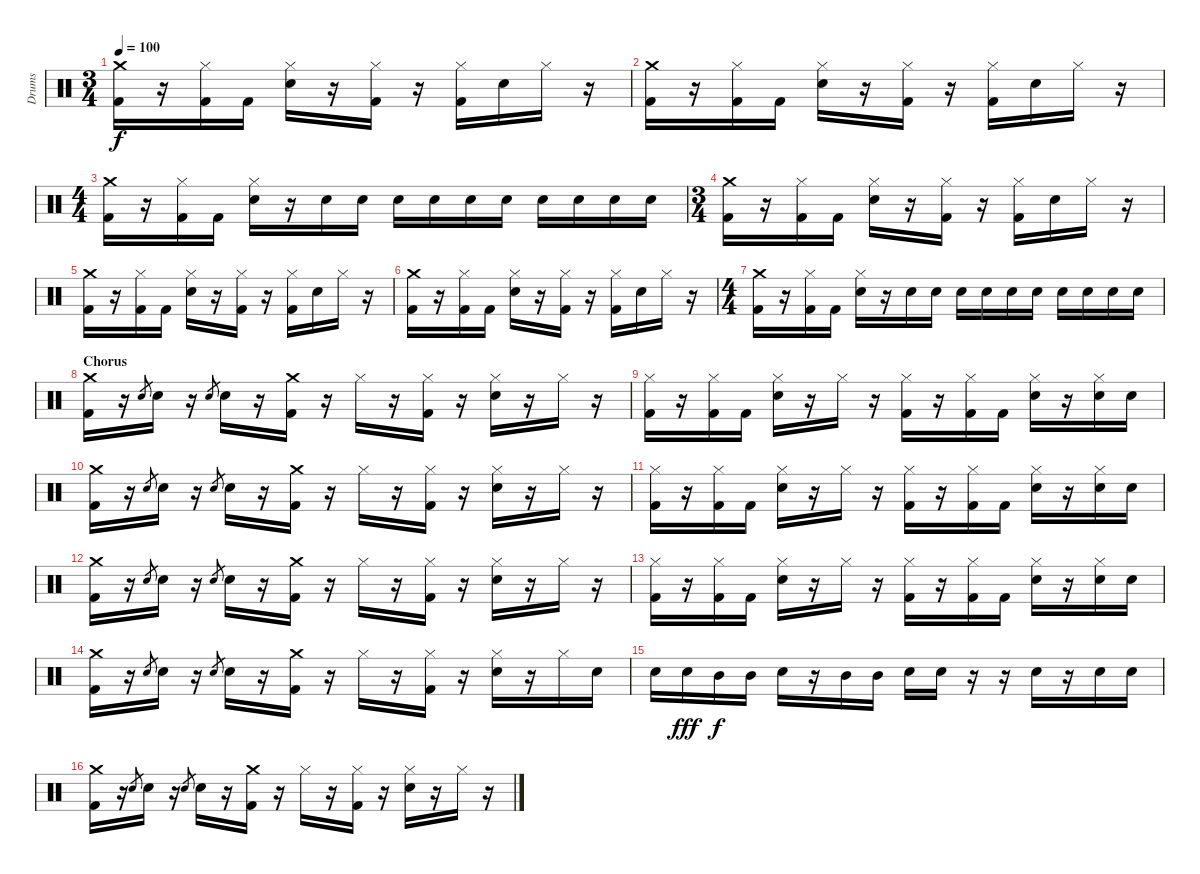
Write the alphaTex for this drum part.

\track ("Drums" "Drums") {instrument percussion}
\staff {score}
\articulation defaults
\ts (3 4)
\tempo 100
\clef neutral
\ks c
("Crash medium (hit)" "Kick (hit) 2").16{dy f} r.16 ("Hi-Hat (closed)" "Kick (hit) 2").16 "Kick (hit) 2".16 ("Hi-Hat (closed)" "Snare (hit) 2").16 r.16 ("Hi-Hat (closed)" "Kick (hit) 2").16 r.16 ("Hi-Hat (closed)" "Kick (hit) 2").16 "Snare (hit) 2".16 "Hi-Hat (closed)".16 r.16 |
("Crash medium (hit)" "Kick (hit) 2").16 r.16 ("Hi-Hat (closed)" "Kick (hit) 2").16 "Kick (hit) 2".16 ("Hi-Hat (closed)" "Snare (hit) 2").16 r.16 ("Hi-Hat (closed)" "Kick (hit) 2").16 r.16 ("Hi-Hat (closed)" "Kick (hit) 2").16 "Snare (hit) 2".16 "Hi-Hat (closed)".16 r.16 |
\ts (4 4)
("Crash medium (hit)" "Kick (hit) 2").16 r.16 ("Hi-Hat (closed)" "Kick (hit) 2").16 "Kick (hit) 2".16 ("Hi-Hat (closed)" "Snare (hit) 2").16 r.16 "Snare (hit) 2".16 "Snare (hit) 2".16 "Snare (hit) 2".16 "Snare (hit) 2".16 "Snare (hit) 2".16 "Snare (hit) 2".16 "Snare (hit) 2".16 "Snare (hit) 2".16 "Snare (hit) 2".16 "Snare (hit) 2".16 |
\ts (3 4)
("Crash medium (hit)" "Kick (hit) 2").16 r.16 ("Hi-Hat (closed)" "Kick (hit) 2").16 "Kick (hit) 2".16 ("Hi-Hat (closed)" "Snare (hit) 2").16 r.16 ("Hi-Hat (closed)" "Kick (hit) 2").16 r.16 ("Hi-Hat (closed)" "Kick (hit) 2").16 "Snare (hit) 2".16 "Hi-Hat (closed)".16 r.16 |
("Crash medium (hit)" "Kick (hit) 2").16 r.16 ("Hi-Hat (closed)" "Kick (hit) 2").16 "Kick (hit) 2".16 ("Hi-Hat (closed)" "Snare (hit) 2").16 r.16 ("Hi-Hat (closed)" "Kick (hit) 2").16 r.16 ("Hi-Hat (closed)" "Kick (hit) 2").16 "Snare (hit) 2".16 "Hi-Hat (closed)".16 r.16 |
("Crash medium (hit)" "Kick (hit) 2").16 r.16 ("Hi-Hat (closed)" "Kick (hit) 2").16 "Kick (hit) 2".16 ("Hi-Hat (closed)" "Snare (hit) 2").16 r.16 ("Hi-Hat (closed)" "Kick (hit) 2").16 r.16 ("Hi-Hat (closed)" "Kick (hit) 2").16 "Snare (hit) 2".16 "Hi-Hat (closed)".16 r.16 |
\ts (4 4)
("Crash medium (hit)" "Kick (hit) 2").16 r.16 ("Hi-Hat (closed)" "Kick (hit) 2").16 "Kick (hit) 2".16 ("Hi-Hat (closed)" "Snare (hit) 2").16 r.16 "Snare (hit) 2".16 "Snare (hit) 2".16 "Snare (hit) 2".16 "Snare (hit) 2".16 "Snare (hit) 2".16 "Snare (hit) 2".16 "Snare (hit) 2".16 "Snare (hit) 2".16 "Snare (hit) 2".16 "Snare (hit) 2".16 |
\section ("" "Chorus")
("Crash medium (hit)" "Kick (hit) 2").16 r.16 "Snare (hit) 2".8{gr} "Snare (hit) 2".16 r.16 "Snare (hit) 2".8{gr} "Snare (hit) 2".16 r.16 ("Crash medium (hit)" "Kick (hit) 2").16 r.16 "Hi-Hat (closed)".16 r.16 ("Hi-Hat (closed)" "Kick (hit) 2").16 r.16 ("Hi-Hat (closed)" "Snare (hit) 2").16 r.16 "Hi-Hat (closed)".16 r.16 |
("Hi-Hat (closed)" "Kick (hit) 2").16 r.16 ("Hi-Hat (closed)" "Kick (hit) 2").16 "Kick (hit) 2".16 ("Hi-Hat (closed)" "Snare (hit) 2").16 r.16 "Hi-Hat (closed)".16 r.16 ("Hi-Hat (closed)" "Kick (hit) 2").16 r.16 ("Hi-Hat (closed)" "Kick (hit) 2").16 "Kick (hit) 2".16 ("Hi-Hat (closed)" "Snare (hit) 2").16 r.16 ("Hi-Hat (closed)" "Snare (hit) 2").16 "Snare (hit) 2".16 |
("Crash medium (hit)" "Kick (hit) 2").16 r.16 "Snare (hit) 2".8{gr} "Snare (hit) 2".16 r.16 "Snare (hit) 2".8{gr} "Snare (hit) 2".16 r.16 ("Crash medium (hit)" "Kick (hit) 2").16 r.16 "Hi-Hat (closed)".16 r.16 ("Hi-Hat (closed)" "Kick (hit) 2").16 r.16 ("Hi-Hat (closed)" "Snare (hit) 2").16 r.16 "Hi-Hat (closed)".16 r.16 |
("Hi-Hat (closed)" "Kick (hit) 2").16 r.16 ("Hi-Hat (closed)" "Kick (hit) 2").16 "Kick (hit) 2".16 ("Hi-Hat (closed)" "Snare (hit) 2").16 r.16 "Hi-Hat (closed)".16 r.16 ("Hi-Hat (closed)" "Kick (hit) 2").16 r.16 ("Hi-Hat (closed)" "Kick (hit) 2").16 "Kick (hit) 2".16 ("Hi-Hat (closed)" "Snare (hit) 2").16 r.16 ("Hi-Hat (closed)" "Snare (hit) 2").16 "Snare (hit) 2".16 |
("Crash medium (hit)" "Kick (hit) 2").16 r.16 "Snare (hit) 2".8{gr} "Snare (hit) 2".16 r.16 "Snare (hit) 2".8{gr} "Snare (hit) 2".16 r.16 ("Crash medium (hit)" "Kick (hit) 2").16 r.16 "Hi-Hat (closed)".16 r.16 ("Hi-Hat (closed)" "Kick (hit) 2").16 r.16 ("Hi-Hat (closed)" "Snare (hit) 2").16 r.16 "Hi-Hat (closed)".16 r.16 |
("Hi-Hat (closed)" "Kick (hit) 2").16 r.16 ("Hi-Hat (closed)" "Kick (hit) 2").16 "Kick (hit) 2".16 ("Hi-Hat (closed)" "Snare (hit) 2").16 r.16 "Hi-Hat (closed)".16 r.16 ("Hi-Hat (closed)" "Kick (hit) 2").16 r.16 ("Hi-Hat (closed)" "Kick (hit) 2").16 "Kick (hit) 2".16 ("Hi-Hat (closed)" "Snare (hit) 2").16 r.16 ("Hi-Hat (closed)" "Snare (hit) 2").16 "Snare (hit) 2".16 |
("Crash medium (hit)" "Kick (hit) 2").16 r.16 "Snare (hit) 2".8{gr} "Snare (hit) 2".16 r.16 "Snare (hit) 2".8{gr} "Snare (hit) 2".16 r.16 ("Crash medium (hit)" "Kick (hit) 2").16 r.16 "Hi-Hat (closed)".16 r.16 ("Hi-Hat (closed)" "Kick (hit) 2").16 r.16 ("Hi-Hat (closed)" "Snare (hit) 2").16 r.16 "Hi-Hat (closed)".16 "Snare (hit) 2".16 |
"Snare (hit) 2".16 "Snare (hit) 2".16{dy fff} "Mid Tom (hit)".16{dy f} "Mid Tom (hit)".16 "Snare (hit) 2".16 r.16 "Mid Tom (hit)".16 "Mid Tom (hit)".16 "Snare (hit) 2".16 "Snare (hit) 2".16 r.16 r.16 "Snare (hit) 2".16 r.16 "Snare (hit) 2".16 "Snare (hit) 2".16 |
("Crash medium (hit)" "Kick (hit) 2").16 r.16 "Snare (hit) 2".8{gr} "Snare (hit) 2".16 r.16 "Snare (hit) 2".8{gr} "Snare (hit) 2".16 r.16 ("Crash medium (hit)" "Kick (hit) 2").16 r.16 "Hi-Hat (closed)".16 r.16 ("Hi-Hat (closed)" "Kick (hit) 2").16 r.16 ("Hi-Hat (closed)" "Snare (hit) 2").16 r.16 "Hi-Hat (closed)".16 r.16
